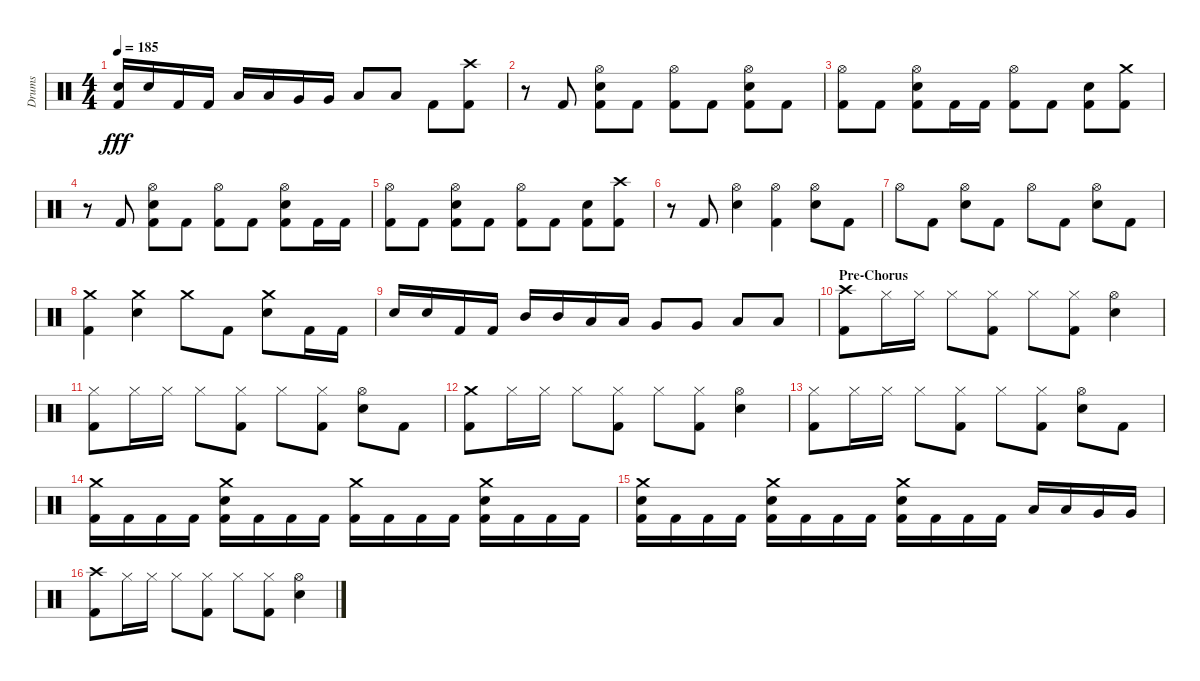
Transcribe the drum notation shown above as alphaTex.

\track ("Drums" "Drums") {instrument percussion}
\staff {score}
\articulation defaults
\ts (4 4)
\tempo 185
\clef neutral
\ks aminor
("Snare (hit) 2" "Kick (hit) 2").16{dy fff} "Snare (hit) 2".16 "Kick (hit) 2".16 "Kick (hit) 2".16 "Low Tom (hit)".16 "Low Tom (hit)".16 "Very Low Tom (hit)".16 "Very Low Tom (hit)".16 "Low Floor Tom (hit)".8 "Low Floor Tom (hit)".8 "Kick (hit) 2".8 ("Crash high (hit)" "Kick (hit) 2").8 |
r.8 "Kick (hit) 2".8 ("Hi-Hat (open)" "Kick (hit) 2" "Snare (hit) 2").8 "Kick (hit) 2".8 ("Hi-Hat (open)" "Kick (hit) 2").8 "Kick (hit) 2".8 ("Snare (hit) 2" "Hi-Hat (open)" "Kick (hit) 2").8 "Kick (hit) 2".8 |
("Kick (hit) 2" "Hi-Hat (open)").8 "Kick (hit) 2".8 ("Kick (hit) 2" "Snare (hit) 2" "Hi-Hat (open)").8 "Kick (hit) 2".16 "Kick (hit) 2".16 ("Kick (hit) 2" "Hi-Hat (open)").8 "Kick (hit) 2".8 ("Kick (hit) 2" "Snare (hit) 2").8 ("Crash medium (hit)" "Kick (hit) 2").8 |
r.8 "Kick (hit) 2".8 ("Hi-Hat (open)" "Kick (hit) 2" "Snare (hit) 2").8 "Kick (hit) 2".8 ("Hi-Hat (open)" "Kick (hit) 2").8 "Kick (hit) 2".8 ("Kick (hit) 2" "Snare (hit) 2" "Hi-Hat (open)").8 "Kick (hit) 2".16 "Kick (hit) 2".16 |
("Kick (hit) 2" "Hi-Hat (open)").8 "Kick (hit) 2".8 ("Snare (hit) 2" "Kick (hit) 2" "Hi-Hat (open)").8 "Kick (hit) 2".8 ("Hi-Hat (open)" "Kick (hit) 2").8 "Kick (hit) 2".8 ("Snare (hit) 2" "Kick (hit) 2").8 ("Crash high (hit)" "Kick (hit) 2").8 |
r.8 "Kick (hit) 2".8 ("Snare (hit) 2" "Hi-Hat (open)").4 ("Hi-Hat (open)" "Kick (hit) 2").4 ("Hi-Hat (open)" "Snare (hit) 2").8 "Kick (hit) 2".8 |
"Hi-Hat (open)".8 "Kick (hit) 2".8 ("Snare (hit) 2" "Hi-Hat (open)").8 "Kick (hit) 2".8 "Hi-Hat (open)".8 "Kick (hit) 2".8 ("Snare (hit) 2" "Hi-Hat (open)").8 "Kick (hit) 2".8 |
("Kick (hit) 2" "Crash medium (hit)").4 ("Crash medium (hit)" "Snare (hit) 2").4 "Crash medium (hit)".8 "Kick (hit) 2".8 ("Crash medium (hit)" "Snare (hit) 2").8 "Kick (hit) 2".16 "Kick (hit) 2".16 |
"Snare (hit) 2".16 "Snare (hit) 2".16 "Kick (hit) 2".16 "Kick (hit) 2".16 "Mid Tom (hit)".16 "Mid Tom (hit)".16 "Low Tom (hit)".16 "Low Tom (hit)".16 "Very Low Tom (hit)".8 "Very Low Tom (hit)".8 "Low Floor Tom (hit)".8 "Low Floor Tom (hit)".8 |
\section ("" "Pre-Chorus")
("Kick (hit) 2" "Crash high (hit)").8 "Hi-Hat (closed)".16 "Hi-Hat (closed)".16 "Hi-Hat (closed)".8 ("Hi-Hat (closed)" "Kick (hit) 2").8 "Hi-Hat (closed)".8 ("Kick (hit) 2" "Hi-Hat (closed)").8 ("Snare (hit) 2" "Hi-Hat (open)").4 |
("Hi-Hat (closed)" "Kick (hit) 2").8 "Hi-Hat (closed)".16 "Hi-Hat (closed)".16 "Hi-Hat (closed)".8 ("Kick (hit) 2" "Hi-Hat (closed)").8 "Hi-Hat (closed)".8 ("Kick (hit) 2" "Hi-Hat (closed)").8 ("Hi-Hat (open)" "Snare (hit) 2").8 "Kick (hit) 2".8 |
("Crash medium (hit)" "Kick (hit) 2").8 "Hi-Hat (closed)".16 "Hi-Hat (closed)".16 "Hi-Hat (closed)".8 ("Hi-Hat (closed)" "Kick (hit) 2").8 "Hi-Hat (closed)".8 ("Hi-Hat (closed)" "Kick (hit) 2").8 ("Hi-Hat (open)" "Snare (hit) 2").4 |
("Kick (hit) 2" "Hi-Hat (closed)").8 "Hi-Hat (closed)".16 "Hi-Hat (closed)".16 "Hi-Hat (closed)".8 ("Hi-Hat (closed)" "Kick (hit) 2").8 "Hi-Hat (closed)".8 ("Hi-Hat (closed)" "Kick (hit) 2").8 ("Hi-Hat (open)" "Snare (hit) 2").8 "Kick (hit) 2".8 |
("Crash medium (hit)" "Kick (hit) 2").16 "Kick (hit) 2".16 "Kick (hit) 2".16 "Kick (hit) 2".16 ("Kick (hit) 2" "Snare (hit) 2" "Crash medium (hit)").16 "Kick (hit) 2".16 "Kick (hit) 2".16 "Kick (hit) 2".16 ("Crash medium (hit)" "Kick (hit) 2").16 "Kick (hit) 2".16 "Kick (hit) 2".16 "Kick (hit) 2".16 ("Kick (hit) 2" "Snare (hit) 2" "Crash medium (hit)").16 "Kick (hit) 2".16 "Kick (hit) 2".16 "Kick (hit) 2".16 |
("Kick (hit) 2" "Snare (hit) 2" "Crash medium (hit)").16 "Kick (hit) 2".16 "Kick (hit) 2".16 "Kick (hit) 2".16 ("Crash medium (hit)" "Snare (hit) 2" "Kick (hit) 2").16 "Kick (hit) 2".16 "Kick (hit) 2".16 "Kick (hit) 2".16 ("Crash medium (hit)" "Snare (hit) 2" "Kick (hit) 2").16 "Kick (hit) 2".16 "Kick (hit) 2".16 "Kick (hit) 2".16 "Low Tom (hit)".16 "Low Tom (hit)".16 "Very Low Tom (hit)".16 "Very Low Tom (hit)".16 |
("Crash high (hit)" "Kick (hit) 2").8 "Hi-Hat (closed)".16 "Hi-Hat (closed)".16 "Hi-Hat (closed)".8 ("Hi-Hat (closed)" "Kick (hit) 2").8 "Hi-Hat (closed)".8 ("Hi-Hat (closed)" "Kick (hit) 2").8 ("Hi-Hat (open)" "Snare (hit) 2").4
